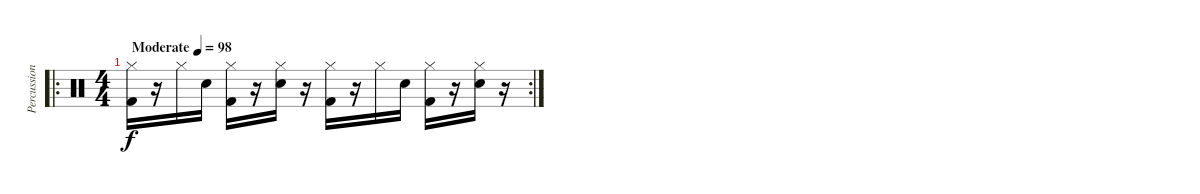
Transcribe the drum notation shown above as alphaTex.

\track ("Percussion" "Percussion") {instrument percussion}
\staff {score}
\articulation defaults
\ro
\rc 2
\ts (4 4)
\tempo (98 "Moderate")
\clef neutral
\ks c
("Hi-Hat (closed)" "Kick (hit) 2").16{dy f} r.16 "Hi-Hat (closed)".16 "Electric Snare (hit)".16 ("Hi-Hat (closed)" "Kick (hit) 2").16 r.16 ("Hi-Hat (closed)" "Electric Snare (hit)").16 r.16 ("Hi-Hat (closed)" "Kick (hit) 2").16 r.16 "Hi-Hat (closed)".16 "Electric Snare (hit)".16 ("Hi-Hat (closed)" "Kick (hit) 2").16 r.16 ("Hi-Hat (closed)" "Electric Snare (hit)").16 r.16
